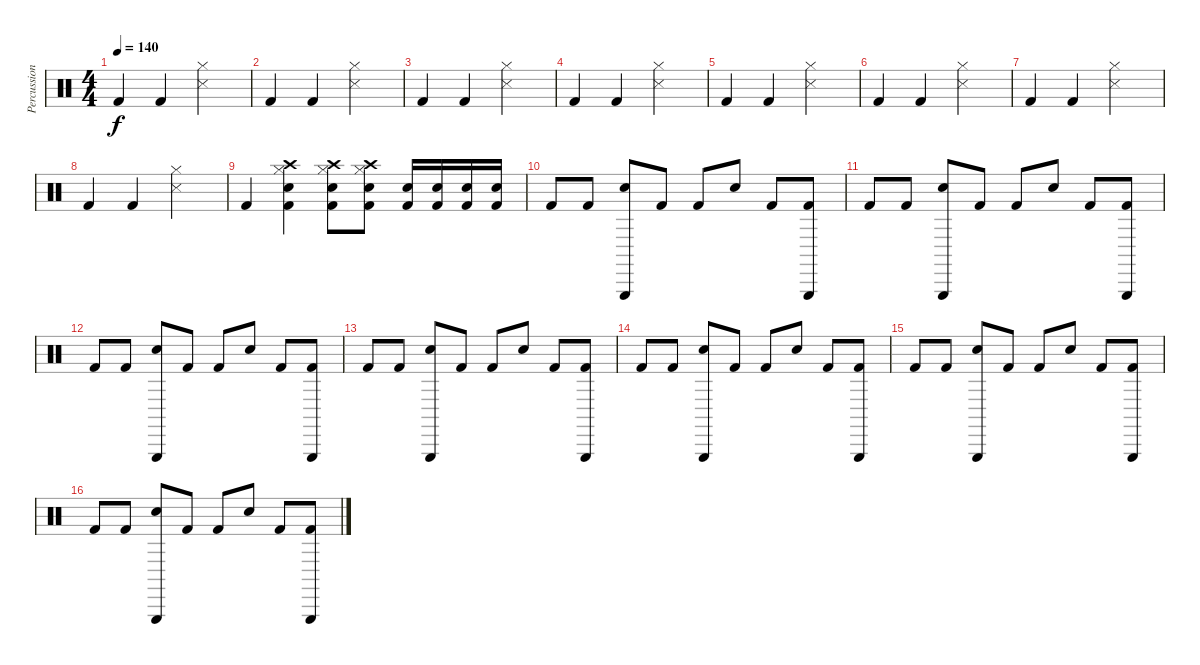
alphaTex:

\track ("Percussion" "Percussion") {instrument percussion}
\staff {score}
\articulation defaults
\ts (4 4)
\tempo 140
\clef neutral
\ks c "Kick (hit) 2".4{dy f} "Kick (hit) 2".4
("Snare (side stick) 3" "Hi-Hat (closed)").2 |
"Kick (hit) 2".4 "Kick (hit) 2".4 ("Snare (side stick) 3" "Hi-Hat (closed)").2 |
"Kick (hit) 2".4 "Kick (hit) 2".4 ("Snare (side stick) 3" "Hi-Hat (closed)").2 |
"Kick (hit) 2".4 "Kick (hit) 2".4 ("Snare (side stick) 3" "Hi-Hat (closed)").2 |
"Kick (hit) 2".4 "Kick (hit) 2".4 ("Snare (side stick) 3" "Hi-Hat (closed)").2 |
"Kick (hit) 2".4 "Kick (hit) 2".4 ("Snare (side stick) 3" "Hi-Hat (closed)").2 |
"Kick (hit) 2".4 "Kick (hit) 2".4 ("Snare (side stick) 3" "Hi-Hat (closed)").2 |
"Kick (hit) 2".4 "Kick (hit) 2".4 ("Snare (side stick) 3" "Hi-Hat (closed)").2 |
"Kick (hit) 2".4 ("Kick (hit) 2" "Hi-Hat (closed)" "Snare (hit) 2" "Crash high (hit)").4 ("Kick (hit) 2" "Hi-Hat (closed)" "Snare (hit) 2" "Crash high (hit)").8 ("Kick (hit) 2" "Hi-Hat (closed)" "Snare (hit) 2" "Crash high (hit)").8 ("Kick (hit) 2" "Snare (hit) 2").16 ("Kick (hit) 2" "Snare (hit) 2").16 ("Kick (hit) 2" "Snare (hit) 2").16 ("Kick (hit) 2" "Snare (hit) 2").16 |
"Kick (hit) 2".8 "Kick (hit) 2".8 ("Snare (hit) 2" "Triangle (hit)").8 "Kick (hit) 2".8 "Kick (hit) 2".8 "Snare (hit) 2".8 "Kick (hit) 2".8 ("Kick (hit) 2" "Triangle (hit)").8 |
"Kick (hit) 2".8 "Kick (hit) 2".8 ("Snare (hit) 2" "Triangle (hit)").8 "Kick (hit) 2".8 "Kick (hit) 2".8 "Snare (hit) 2".8 "Kick (hit) 2".8 ("Kick (hit) 2" "Triangle (hit)").8 |
"Kick (hit) 2".8 "Kick (hit) 2".8 ("Snare (hit) 2" "Triangle (hit)").8 "Kick (hit) 2".8 "Kick (hit) 2".8 "Snare (hit) 2".8 "Kick (hit) 2".8 ("Kick (hit) 2" "Triangle (hit)").8 |
"Kick (hit) 2".8 "Kick (hit) 2".8 ("Snare (hit) 2" "Triangle (hit)").8 "Kick (hit) 2".8 "Kick (hit) 2".8 "Snare (hit) 2".8 "Kick (hit) 2".8 ("Kick (hit) 2" "Triangle (hit)").8 |
"Kick (hit) 2".8 "Kick (hit) 2".8 ("Snare (hit) 2" "Triangle (hit)").8 "Kick (hit) 2".8 "Kick (hit) 2".8 "Snare (hit) 2".8 "Kick (hit) 2".8 ("Kick (hit) 2" "Triangle (hit)").8 |
"Kick (hit) 2".8 "Kick (hit) 2".8 ("Snare (hit) 2" "Triangle (hit)").8 "Kick (hit) 2".8 "Kick (hit) 2".8 "Snare (hit) 2".8 "Kick (hit) 2".8 ("Kick (hit) 2" "Triangle (hit)").8 |
"Kick (hit) 2".8 "Kick (hit) 2".8 ("Snare (hit) 2" "Triangle (hit)").8 "Kick (hit) 2".8 "Kick (hit) 2".8 "Snare (hit) 2".8 "Kick (hit) 2".8 ("Kick (hit) 2" "Triangle (hit)").8
